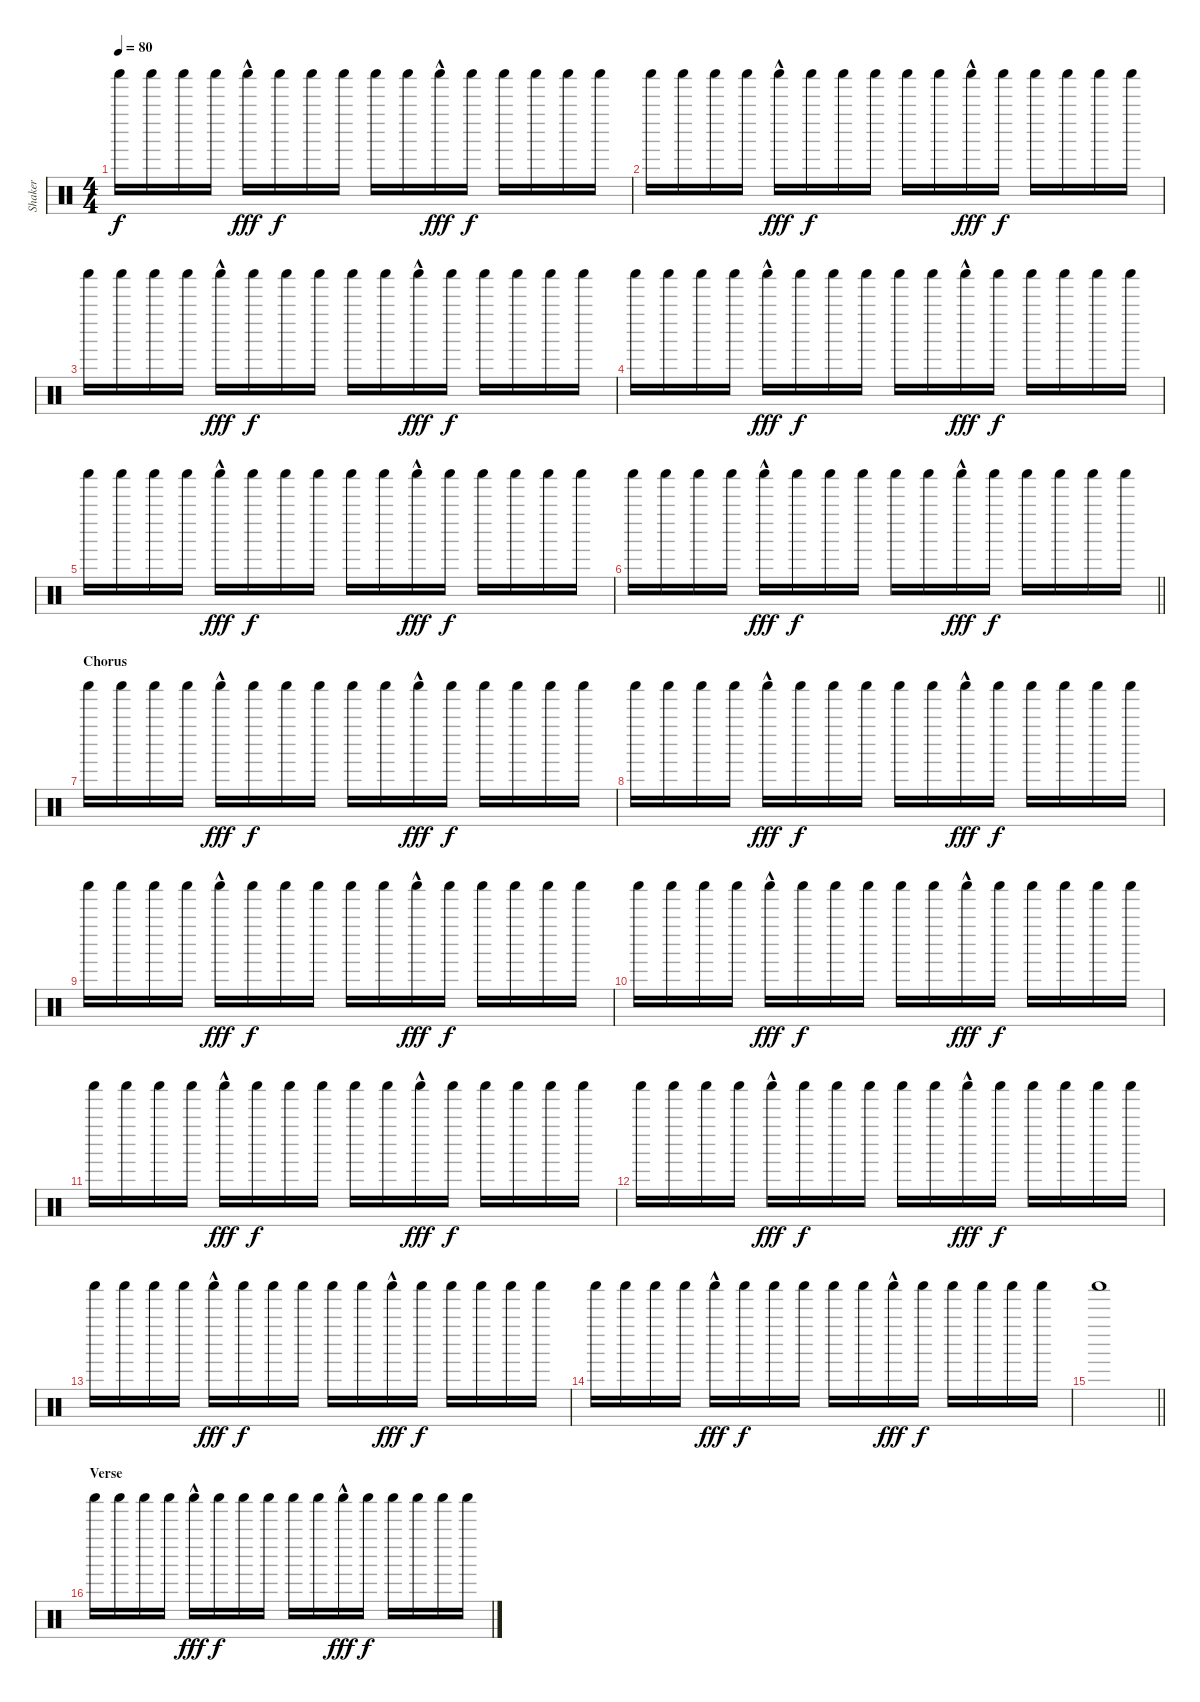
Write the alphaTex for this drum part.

\track ("Shaker" "Shaker") {instrument percussion}
\staff {score}
\articulation defaults
\ts (4 4)
\tempo 80
\clef neutral
\ks c "Shaker (hit)".16{dy f} "Shaker (hit)".16 "Shaker (hit)".16 "Shaker (hit)".16 "Shaker (hit)"{hac}.16{dy fff} "Shaker (hit)".16{dy f} "Shaker (hit)".16 "Shaker (hit)".16 "Shaker (hit)".16 "Shaker (hit)".16 "Shaker (hit)"{hac}.16{dy fff} "Shaker (hit)".16{dy f} "Shaker (hit)".16 "Shaker (hit)".16 "Shaker (hit)".16 "Shaker (hit)".16
|
"Shaker (hit)".16 "Shaker (hit)".16 "Shaker (hit)".16 "Shaker (hit)".16 "Shaker (hit)"{hac}.16{dy fff} "Shaker (hit)".16{dy f} "Shaker (hit)".16 "Shaker (hit)".16 "Shaker (hit)".16 "Shaker (hit)".16 "Shaker (hit)"{hac}.16{dy fff} "Shaker (hit)".16{dy f} "Shaker (hit)".16 "Shaker (hit)".16 "Shaker (hit)".16 "Shaker (hit)".16 |
"Shaker (hit)".16 "Shaker (hit)".16 "Shaker (hit)".16 "Shaker (hit)".16 "Shaker (hit)"{hac}.16{dy fff} "Shaker (hit)".16{dy f} "Shaker (hit)".16 "Shaker (hit)".16 "Shaker (hit)".16 "Shaker (hit)".16 "Shaker (hit)"{hac}.16{dy fff} "Shaker (hit)".16{dy f} "Shaker (hit)".16 "Shaker (hit)".16 "Shaker (hit)".16 "Shaker (hit)".16 |
"Shaker (hit)".16 "Shaker (hit)".16 "Shaker (hit)".16 "Shaker (hit)".16 "Shaker (hit)"{hac}.16{dy fff} "Shaker (hit)".16{dy f} "Shaker (hit)".16 "Shaker (hit)".16 "Shaker (hit)".16 "Shaker (hit)".16 "Shaker (hit)"{hac}.16{dy fff} "Shaker (hit)".16{dy f} "Shaker (hit)".16 "Shaker (hit)".16 "Shaker (hit)".16 "Shaker (hit)".16 |
"Shaker (hit)".16 "Shaker (hit)".16 "Shaker (hit)".16 "Shaker (hit)".16 "Shaker (hit)"{hac}.16{dy fff} "Shaker (hit)".16{dy f} "Shaker (hit)".16 "Shaker (hit)".16 "Shaker (hit)".16 "Shaker (hit)".16 "Shaker (hit)"{hac}.16{dy fff} "Shaker (hit)".16{dy f} "Shaker (hit)".16 "Shaker (hit)".16 "Shaker (hit)".16 "Shaker (hit)".16 |
\barLineRight lightlight "Shaker (hit)".16 "Shaker (hit)".16 "Shaker (hit)".16 "Shaker (hit)".16 "Shaker (hit)"{hac}.16{dy fff} "Shaker (hit)".16{dy f} "Shaker (hit)".16 "Shaker (hit)".16 "Shaker (hit)".16 "Shaker (hit)".16 "Shaker (hit)"{hac}.16{dy fff} "Shaker (hit)".16{dy f} "Shaker (hit)".16 "Shaker (hit)".16 "Shaker (hit)".16 "Shaker (hit)".16
|
\section ("" "Chorus")
"Shaker (hit)".16 "Shaker (hit)".16 "Shaker (hit)".16 "Shaker (hit)".16 "Shaker (hit)"{hac}.16{dy fff} "Shaker (hit)".16{dy f} "Shaker (hit)".16 "Shaker (hit)".16 "Shaker (hit)".16 "Shaker (hit)".16 "Shaker (hit)"{hac}.16{dy fff} "Shaker (hit)".16{dy f} "Shaker (hit)".16 "Shaker (hit)".16 "Shaker (hit)".16 "Shaker (hit)".16 |
"Shaker (hit)".16 "Shaker (hit)".16 "Shaker (hit)".16 "Shaker (hit)".16 "Shaker (hit)"{hac}.16{dy fff} "Shaker (hit)".16{dy f} "Shaker (hit)".16 "Shaker (hit)".16 "Shaker (hit)".16 "Shaker (hit)".16 "Shaker (hit)"{hac}.16{dy fff} "Shaker (hit)".16{dy f} "Shaker (hit)".16 "Shaker (hit)".16 "Shaker (hit)".16 "Shaker (hit)".16 |
"Shaker (hit)".16 "Shaker (hit)".16 "Shaker (hit)".16 "Shaker (hit)".16 "Shaker (hit)"{hac}.16{dy fff} "Shaker (hit)".16{dy f} "Shaker (hit)".16 "Shaker (hit)".16 "Shaker (hit)".16 "Shaker (hit)".16 "Shaker (hit)"{hac}.16{dy fff} "Shaker (hit)".16{dy f} "Shaker (hit)".16 "Shaker (hit)".16 "Shaker (hit)".16 "Shaker (hit)".16 |
"Shaker (hit)".16 "Shaker (hit)".16 "Shaker (hit)".16 "Shaker (hit)".16 "Shaker (hit)"{hac}.16{dy fff} "Shaker (hit)".16{dy f} "Shaker (hit)".16 "Shaker (hit)".16 "Shaker (hit)".16 "Shaker (hit)".16 "Shaker (hit)"{hac}.16{dy fff} "Shaker (hit)".16{dy f} "Shaker (hit)".16 "Shaker (hit)".16 "Shaker (hit)".16 "Shaker (hit)".16 |
"Shaker (hit)".16 "Shaker (hit)".16 "Shaker (hit)".16 "Shaker (hit)".16 "Shaker (hit)"{hac}.16{dy fff} "Shaker (hit)".16{dy f} "Shaker (hit)".16 "Shaker (hit)".16 "Shaker (hit)".16 "Shaker (hit)".16 "Shaker (hit)"{hac}.16{dy fff} "Shaker (hit)".16{dy f} "Shaker (hit)".16 "Shaker (hit)".16 "Shaker (hit)".16 "Shaker (hit)".16 |
"Shaker (hit)".16 "Shaker (hit)".16 "Shaker (hit)".16 "Shaker (hit)".16 "Shaker (hit)"{hac}.16{dy fff} "Shaker (hit)".16{dy f} "Shaker (hit)".16 "Shaker (hit)".16 "Shaker (hit)".16 "Shaker (hit)".16 "Shaker (hit)"{hac}.16{dy fff} "Shaker (hit)".16{dy f} "Shaker (hit)".16 "Shaker (hit)".16 "Shaker (hit)".16 "Shaker (hit)".16 |
"Shaker (hit)".16 "Shaker (hit)".16 "Shaker (hit)".16 "Shaker (hit)".16 "Shaker (hit)"{hac}.16{dy fff} "Shaker (hit)".16{dy f} "Shaker (hit)".16 "Shaker (hit)".16 "Shaker (hit)".16 "Shaker (hit)".16 "Shaker (hit)"{hac}.16{dy fff} "Shaker (hit)".16{dy f} "Shaker (hit)".16 "Shaker (hit)".16 "Shaker (hit)".16 "Shaker (hit)".16 |
"Shaker (hit)".16 "Shaker (hit)".16 "Shaker (hit)".16 "Shaker (hit)".16 "Shaker (hit)"{hac}.16{dy fff} "Shaker (hit)".16{dy f} "Shaker (hit)".16 "Shaker (hit)".16 "Shaker (hit)".16 "Shaker (hit)".16 "Shaker (hit)"{hac}.16{dy fff} "Shaker (hit)".16{dy f} "Shaker (hit)".16 "Shaker (hit)".16 "Shaker (hit)".16 "Shaker (hit)".16 |
\barLineRight lightlight "Shaker (hit)".1
|
\section ("" "Verse")
"Shaker (hit)".16 "Shaker (hit)".16 "Shaker (hit)".16 "Shaker (hit)".16 "Shaker (hit)"{hac}.16{dy fff} "Shaker (hit)".16{dy f} "Shaker (hit)".16 "Shaker (hit)".16 "Shaker (hit)".16 "Shaker (hit)".16 "Shaker (hit)"{hac}.16{dy fff} "Shaker (hit)".16{dy f} "Shaker (hit)".16 "Shaker (hit)".16 "Shaker (hit)".16 "Shaker (hit)".16
